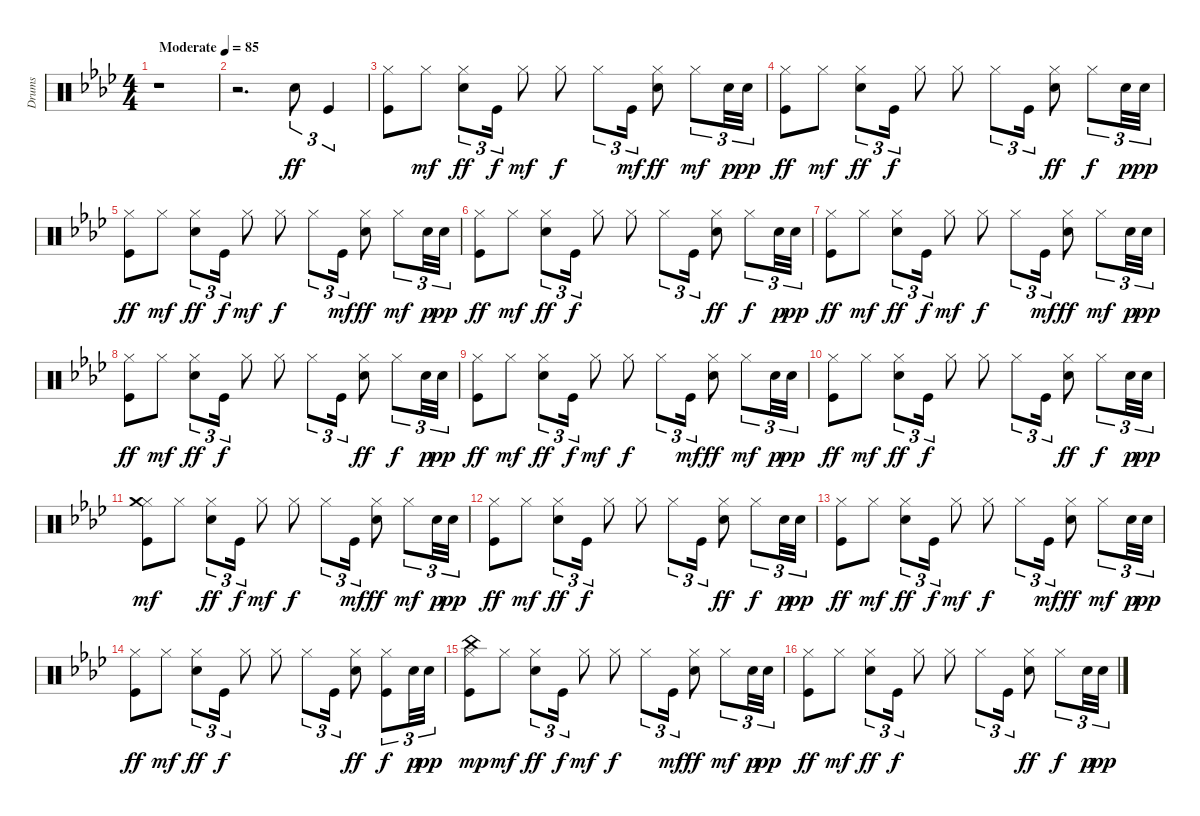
\track ("Drums" "Drums") {instrument percussion}
\staff {score}
\articulation defaults
\ts (4 4)
\tempo (85 "Moderate")
\clef neutral
\ks ab
r.1{dy ff} |
r.2{d} "Electric Snare (hit)".8{tu (3 2)} "Kick (hit)".4{tu (3 2)} |
("Kick (hit)" "Hi-Hat (closed)").8 "Hi-Hat (closed)".8{dy mf} ("Electric Snare (hit)" "Hi-Hat (closed)").8{tu (3 2) dy ff} "Kick (hit)".16{tu (3 2) dy f} "Hi-Hat (closed)".8{dy mf} "Hi-Hat (closed)".8{dy f} "Hi-Hat (closed)".8{tu (3 2)} "Kick (hit)".16{tu (3 2) dy mf} ("Electric Snare (hit)" "Hi-Hat (closed)").8{dy ff} "Hi-Hat (closed)".8{tu (3 2) dy mf} "Snare (hit) 2".32{tu (3 2) dy p} "Snare (hit) 2".32{tu (3 2) dy pp} |
("Kick (hit)" "Hi-Hat (closed)").8{dy ff} "Hi-Hat (closed)".8{dy mf} ("Electric Snare (hit)" "Hi-Hat (closed)").8{tu (3 2) dy ff} "Kick (hit)".16{tu (3 2) dy f} "Hi-Hat (closed)".8 "Hi-Hat (closed)".8 "Hi-Hat (closed)".8{tu (3 2)} "Kick (hit)".16{tu (3 2)} ("Electric Snare (hit)" "Hi-Hat (closed)").8{dy ff} "Hi-Hat (closed)".8{tu (3 2) dy f} "Snare (hit) 2".32{tu (3 2) dy p} "Snare (hit) 2".32{tu (3 2) dy pp} |
("Kick (hit)" "Hi-Hat (closed)").8{dy ff} "Hi-Hat (closed)".8{dy mf} ("Electric Snare (hit)" "Hi-Hat (closed)").8{tu (3 2) dy ff} "Kick (hit)".16{tu (3 2) dy f} "Hi-Hat (closed)".8{dy mf} "Hi-Hat (closed)".8{dy f} "Hi-Hat (closed)".8{tu (3 2)} "Kick (hit)".16{tu (3 2) dy mf} ("Electric Snare (hit)" "Hi-Hat (closed)").8{dy ff} "Hi-Hat (closed)".8{tu (3 2) dy mf} "Snare (hit) 2".32{tu (3 2) dy p} "Snare (hit) 2".32{tu (3 2) dy pp} |
("Kick (hit)" "Hi-Hat (closed)").8{dy ff} "Hi-Hat (closed)".8{dy mf} ("Electric Snare (hit)" "Hi-Hat (closed)").8{tu (3 2) dy ff} "Kick (hit)".16{tu (3 2) dy f} "Hi-Hat (closed)".8 "Hi-Hat (closed)".8 "Hi-Hat (closed)".8{tu (3 2)} "Kick (hit)".16{tu (3 2)} ("Electric Snare (hit)" "Hi-Hat (closed)").8{dy ff} "Hi-Hat (closed)".8{tu (3 2) dy f} "Snare (hit) 2".32{tu (3 2) dy p} "Snare (hit) 2".32{tu (3 2) dy pp} |
("Kick (hit)" "Hi-Hat (closed)").8{dy ff} "Hi-Hat (closed)".8{dy mf} ("Electric Snare (hit)" "Hi-Hat (closed)").8{tu (3 2) dy ff} "Kick (hit)".16{tu (3 2) dy f} "Hi-Hat (closed)".8{dy mf} "Hi-Hat (closed)".8{dy f} "Hi-Hat (closed)".8{tu (3 2)} "Kick (hit)".16{tu (3 2) dy mf} ("Electric Snare (hit)" "Hi-Hat (closed)").8{dy ff} "Hi-Hat (closed)".8{tu (3 2) dy mf} "Snare (hit) 2".32{tu (3 2) dy p} "Snare (hit) 2".32{tu (3 2) dy pp} |
("Kick (hit)" "Hi-Hat (closed)").8{dy ff} "Hi-Hat (closed)".8{dy mf} ("Electric Snare (hit)" "Hi-Hat (closed)").8{tu (3 2) dy ff} "Kick (hit)".16{tu (3 2) dy f} "Hi-Hat (closed)".8 "Hi-Hat (closed)".8 "Hi-Hat (closed)".8{tu (3 2)} "Kick (hit)".16{tu (3 2)} ("Electric Snare (hit)" "Hi-Hat (closed)").8{dy ff} "Hi-Hat (closed)".8{tu (3 2) dy f} "Snare (hit) 2".32{tu (3 2) dy p} "Snare (hit) 2".32{tu (3 2) dy pp} |
("Kick (hit)" "Hi-Hat (closed)").8{dy ff} "Hi-Hat (closed)".8{dy mf} ("Electric Snare (hit)" "Hi-Hat (closed)").8{tu (3 2) dy ff} "Kick (hit)".16{tu (3 2) dy f} "Hi-Hat (closed)".8{dy mf} "Hi-Hat (closed)".8{dy f} "Hi-Hat (closed)".8{tu (3 2)} "Kick (hit)".16{tu (3 2) dy mf} ("Electric Snare (hit)" "Hi-Hat (closed)").8{dy ff} "Hi-Hat (closed)".8{tu (3 2) dy mf} "Snare (hit) 2".32{tu (3 2) dy p} "Snare (hit) 2".32{tu (3 2) dy pp} |
("Kick (hit)" "Hi-Hat (closed)").8{dy ff} "Hi-Hat (closed)".8{dy mf} ("Electric Snare (hit)" "Hi-Hat (closed)").8{tu (3 2) dy ff} "Kick (hit)".16{tu (3 2) dy f} "Hi-Hat (closed)".8 "Hi-Hat (closed)".8 "Hi-Hat (closed)".8{tu (3 2)} "Kick (hit)".16{tu (3 2)} ("Electric Snare (hit)" "Hi-Hat (closed)").8{dy ff} "Hi-Hat (closed)".8{tu (3 2) dy f} "Snare (hit) 2".32{tu (3 2) dy p} "Snare (hit) 2".32{tu (3 2) dy pp} |
("Kick (hit)" "Hi-Hat (closed)" "Crash medium (hit)").8{dy mf} "Hi-Hat (closed)".8 ("Electric Snare (hit)" "Hi-Hat (closed)").8{tu (3 2) dy ff} "Kick (hit)".16{tu (3 2) dy f} "Hi-Hat (closed)".8{dy mf} "Hi-Hat (closed)".8{dy f} "Hi-Hat (closed)".8{tu (3 2)} "Kick (hit)".16{tu (3 2) dy mf} ("Electric Snare (hit)" "Hi-Hat (closed)").8{dy ff} "Hi-Hat (closed)".8{tu (3 2) dy mf} "Snare (hit) 2".32{tu (3 2) dy p} "Snare (hit) 2".32{tu (3 2) dy pp} |
("Kick (hit)" "Hi-Hat (closed)").8{dy ff} "Hi-Hat (closed)".8{dy mf} ("Electric Snare (hit)" "Hi-Hat (closed)").8{tu (3 2) dy ff} "Kick (hit)".16{tu (3 2) dy f} "Hi-Hat (closed)".8 "Hi-Hat (closed)".8 "Hi-Hat (closed)".8{tu (3 2)} "Kick (hit)".16{tu (3 2)} ("Electric Snare (hit)" "Hi-Hat (closed)").8{dy ff} "Hi-Hat (closed)".8{tu (3 2) dy f} "Snare (hit) 2".32{tu (3 2) dy p} "Snare (hit) 2".32{tu (3 2) dy pp} |
("Kick (hit)" "Hi-Hat (closed)").8{dy ff} "Hi-Hat (closed)".8{dy mf} ("Electric Snare (hit)" "Hi-Hat (closed)").8{tu (3 2) dy ff} "Kick (hit)".16{tu (3 2) dy f} "Hi-Hat (closed)".8{dy mf} "Hi-Hat (closed)".8{dy f} "Hi-Hat (closed)".8{tu (3 2)} "Kick (hit)".16{tu (3 2) dy mf} ("Electric Snare (hit)" "Hi-Hat (closed)").8{dy ff} "Hi-Hat (closed)".8{tu (3 2) dy mf} "Snare (hit) 2".32{tu (3 2) dy p} "Snare (hit) 2".32{tu (3 2) dy pp} |
("Kick (hit)" "Hi-Hat (closed)").8{dy ff} "Hi-Hat (closed)".8{dy mf} ("Electric Snare (hit)" "Hi-Hat (closed)").8{tu (3 2) dy ff} "Kick (hit)".16{tu (3 2) dy f} "Hi-Hat (closed)".8 "Hi-Hat (closed)".8 "Hi-Hat (closed)".8{tu (3 2)} "Kick (hit)".16{tu (3 2)} ("Electric Snare (hit)" "Hi-Hat (closed)").8{dy ff} ("Kick (hit)" "Hi-Hat (closed)").8{tu (3 2) dy f} "Snare (hit) 2".32{tu (3 2) dy p} "Snare (hit) 2".32{tu (3 2) dy pp} |
("Kick (hit)" "Hi-Hat (closed)" "China (hit)").8{dy mp} "Hi-Hat (closed)".8{dy mf} ("Electric Snare (hit)" "Hi-Hat (closed)").8{tu (3 2) dy ff} "Kick (hit)".16{tu (3 2) dy f} "Hi-Hat (closed)".8{dy mf} "Hi-Hat (closed)".8{dy f} "Hi-Hat (closed)".8{tu (3 2)} "Kick (hit)".16{tu (3 2) dy mf} ("Electric Snare (hit)" "Hi-Hat (closed)").8{dy ff} "Hi-Hat (closed)".8{tu (3 2) dy mf} "Snare (hit) 2".32{tu (3 2) dy p} "Snare (hit) 2".32{tu (3 2) dy pp} |
("Kick (hit)" "Hi-Hat (closed)").8{dy ff} "Hi-Hat (closed)".8{dy mf} ("Electric Snare (hit)" "Hi-Hat (closed)").8{tu (3 2) dy ff} "Kick (hit)".16{tu (3 2) dy f} "Hi-Hat (closed)".8 "Hi-Hat (closed)".8 "Hi-Hat (closed)".8{tu (3 2)} "Kick (hit)".16{tu (3 2)} ("Electric Snare (hit)" "Hi-Hat (closed)").8{dy ff} "Hi-Hat (closed)".8{tu (3 2) dy f} "Snare (hit) 2".32{tu (3 2) dy p} "Snare (hit) 2".32{tu (3 2) dy pp}
